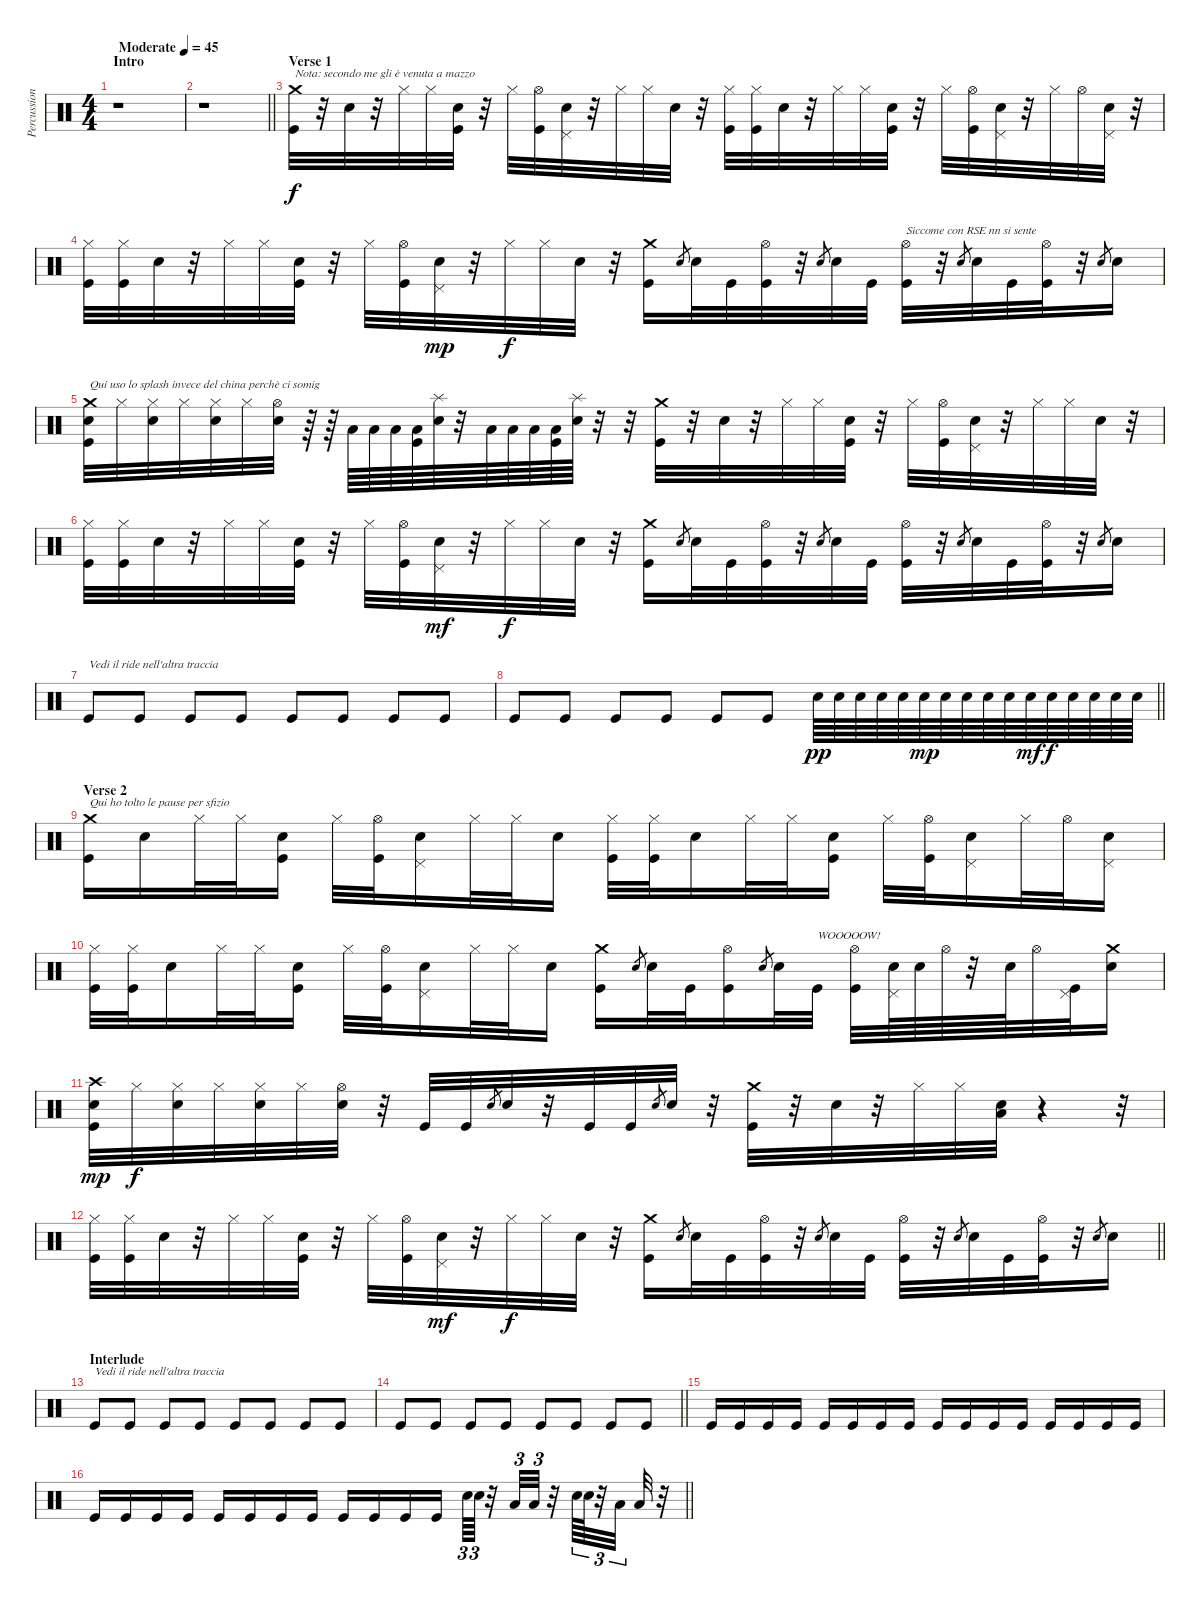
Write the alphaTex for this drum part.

\track ("Percussioni" "Percussion") {instrument percussion}
\staff {score}
\articulation defaults
\ts (4 4)
\section ("" "Intro")
\tempo (45 "Moderate")
\clef neutral
\ks c
r.1{dy f} |
\barLineRight lightlight
r.1 |
\section ("" "Verse 1")
("Crash medium (hit)" "Kick (hit)").32{txt "Nota: secondo me gli è venuta a mazzo"} r.32 "Snare (hit) 2".32 r.32 "Hi-Hat (closed)".32 "Hi-Hat (closed)".32 ("Kick (hit)" "Snare (hit) 2").32 r.32 "Hi-Hat (closed)".32 ("Hi-Hat (open)" "Kick (hit)").32 ("Snare (hit) 2" "Pedal Hi-Hat (hit)").32 r.32 "Hi-Hat (closed)".32 "Hi-Hat (closed)".32 "Snare (hit) 2".32 r.32 ("Hi-Hat (closed)" "Kick (hit)").32 ("Hi-Hat (closed)" "Kick (hit)").32 "Snare (hit) 2".32 r.32 "Hi-Hat (closed)".32 "Hi-Hat (closed)".32 ("Snare (hit) 2" "Kick (hit)").32 r.32 "Hi-Hat (closed)".32 ("Hi-Hat (open)" "Kick (hit)").32 ("Snare (hit) 2" "Pedal Hi-Hat (hit)").32 r.32 "Hi-Hat (closed)".32 "Hi-Hat (open)".32 ("Snare (hit) 2" "Pedal Hi-Hat (hit)").32 r.32 |
("Hi-Hat (closed)" "Kick (hit)").32 ("Hi-Hat (closed)" "Kick (hit)").32 "Snare (hit) 2".32 r.32 "Hi-Hat (closed)".32 "Hi-Hat (closed)".32 ("Snare (hit) 2" "Kick (hit)").32 r.32 "Hi-Hat (closed)".32 ("Hi-Hat (open)" "Kick (hit)").32 ("Snare (hit) 2" "Pedal Hi-Hat (hit)").32{dy mp} r.32 "Hi-Hat (closed)".32{dy f} "Hi-Hat (closed)".32 "Snare (hit) 2".32 r.32 ("Crash medium (hit)" "Kick (hit)").16 "Snare (hit) 2".8{gr} "Snare (hit) 2".32 "Kick (hit)".32 ("Hi-Hat (open)" "Kick (hit)").32 r.32 "Snare (hit) 2".8{gr} "Snare (hit) 2".32 "Kick (hit)".32 ("Hi-Hat (open)" "Kick (hit)").32{txt "Siccome con RSE nn si sente"} r.32 "Snare (hit) 2".8{gr} "Snare (hit) 2".32 "Kick (hit)".32 ("Hi-Hat (open)" "Kick (hit)").32 r.32 "Snare (hit) 2".8{gr} "Snare (hit) 2".16 |
("Snare (hit) 2" "Crash medium (hit)" "Kick (hit)").32{txt "Qui uso lo splash invece del china perchè ci somig"} "Hi-Hat (closed)".32 ("Snare (hit) 2" "Hi-Hat (closed)").32 "Hi-Hat (closed)".32 ("Snare (hit) 2" "Hi-Hat (closed)").32 "Hi-Hat (closed)".32 ("Snare (hit) 2" "Hi-Hat (open)").32 r.64 r.64 "Low Tom (hit)".64 "Low Tom (hit)".64 "Low Tom (hit)".64 ("Low Tom (hit)" "Kick (hit)").64 ("Splash (hit)" "Snare (hit) 2").64 r.32 "Low Floor Tom (hit)".64 "Low Floor Tom (hit)".64 "Low Floor Tom (hit)".64 ("Low Floor Tom (hit)" "Kick (hit)").64 ("Splash (hit)" "Snare (hit) 2").64 r.32 r.32 ("Crash medium (hit)" "Kick (hit)").32 r.32 "Snare (hit) 2".32 r.32 "Hi-Hat (closed)".32 "Hi-Hat (closed)".32 ("Kick (hit)" "Snare (hit) 2").32 r.32 "Hi-Hat (closed)".32 ("Kick (hit)" "Hi-Hat (open)").32 ("Pedal Hi-Hat (hit)" "Snare (hit) 2").32 r.32 "Hi-Hat (closed)".32 "Hi-Hat (closed)".32 "Snare (hit) 2".32 r.32 |
("Hi-Hat (closed)" "Kick (hit)").32 ("Hi-Hat (closed)" "Kick (hit)").32 "Snare (hit) 2".32 r.32 "Hi-Hat (closed)".32 "Hi-Hat (closed)".32 ("Snare (hit) 2" "Kick (hit)").32 r.32 "Hi-Hat (closed)".32 ("Hi-Hat (open)" "Kick (hit)").32 ("Snare (hit) 2" "Pedal Hi-Hat (hit)").32{dy mf} r.32 "Hi-Hat (closed)".32{dy f} "Hi-Hat (closed)".32 "Snare (hit) 2".32 r.32 ("Crash medium (hit)" "Kick (hit)").16 "Snare (hit) 2".8{gr} "Snare (hit) 2".32 "Kick (hit)".32 ("Hi-Hat (open)" "Kick (hit)").32 r.32 "Snare (hit) 2".8{gr} "Snare (hit) 2".32 "Kick (hit)".32 ("Hi-Hat (open)" "Kick (hit)").32 r.32 "Snare (hit) 2".8{gr} "Snare (hit) 2".32 "Kick (hit)".32 ("Hi-Hat (open)" "Kick (hit)").32 r.32 "Snare (hit) 2".8{gr} "Snare (hit) 2".16 |
"Kick (hit)".8{txt "Vedi il ride nell'altra traccia"} "Kick (hit)".8 "Kick (hit)".8 "Kick (hit)".8 "Kick (hit)".8 "Kick (hit)".8 "Kick (hit)".8 "Kick (hit)".8 |
\barLineRight lightlight "Kick (hit)".8 "Kick (hit)".8 "Kick (hit)".8 "Kick (hit)".8 "Kick (hit)".8 "Kick (hit)".8 "Snare (hit) 2".64{dy pp} "Snare (hit) 2".64 "Snare (hit) 2".64 "Snare (hit) 2".64 "Snare (hit) 2".64 "Snare (hit) 2".64{dy mp} "Snare (hit) 2".64 "Snare (hit) 2".64 "Snare (hit) 2".64 "Snare (hit) 2".64 "Snare (hit) 2".64{dy mf} "Snare (hit) 2".64{dy f} "Snare (hit) 2".64 "Snare (hit) 2".64 "Snare (hit) 2".64 "Snare (hit) 2".64
|
\section ("" "Verse 2")
("Crash medium (hit)" "Kick (hit)").16{txt "Qui ho tolto le pause per sfizio"} "Snare (hit) 2".16 "Hi-Hat (closed)".32 "Hi-Hat (closed)".32 ("Kick (hit)" "Snare (hit) 2").16 "Hi-Hat (closed)".32 ("Hi-Hat (open)" "Kick (hit)").32 ("Snare (hit) 2" "Pedal Hi-Hat (hit)").16 "Hi-Hat (closed)".32 "Hi-Hat (closed)".32 "Snare (hit) 2".16 ("Hi-Hat (closed)" "Kick (hit)").32 ("Hi-Hat (closed)" "Kick (hit)").32 "Snare (hit) 2".16 "Hi-Hat (closed)".32 "Hi-Hat (closed)".32 ("Snare (hit) 2" "Kick (hit)").16 "Hi-Hat (closed)".32 ("Hi-Hat (open)" "Kick (hit)").32 ("Snare (hit) 2" "Pedal Hi-Hat (hit)").16 "Hi-Hat (closed)".32 "Hi-Hat (open)".32 ("Snare (hit) 2" "Pedal Hi-Hat (hit)").16 |
("Hi-Hat (closed)" "Kick (hit)").32 ("Hi-Hat (closed)" "Kick (hit)").32 "Snare (hit) 2".16 "Hi-Hat (closed)".32 "Hi-Hat (closed)".32 ("Snare (hit) 2" "Kick (hit)").16 "Hi-Hat (closed)".32 ("Hi-Hat (open)" "Kick (hit)").32 ("Snare (hit) 2" "Pedal Hi-Hat (hit)").16 "Hi-Hat (closed)".32 "Hi-Hat (closed)".32 "Snare (hit) 2".16 ("Crash medium (hit)" "Kick (hit)").16 "Snare (hit) 2".8{gr} "Snare (hit) 2".32 "Kick (hit)".32 ("Hi-Hat (open)" "Kick (hit)").16 "Snare (hit) 2".8{gr} "Snare (hit) 2".32 "Kick (hit)".32{txt "WOOOOOW!"} ("Hi-Hat (open)" "Kick (hit)").32 ("Snare (hit) 2" "Pedal Hi-Hat (hit)").64 "Snare (hit) 2".64 "Hi-Hat (open)".64 r.32 "Snare (hit) 2".64 "Hi-Hat (open)".32 ("Kick (hit)" "Pedal Hi-Hat (hit)").32 ("Crash medium (hit)" "Snare (hit) 2").16 |
("Crash high (hit)" "Kick (hit)" "Snare (hit) 2").32{dy mp} "Hi-Hat (closed)".32{dy f} ("Hi-Hat (closed)" "Snare (hit) 2").32 "Hi-Hat (closed)".32 ("Hi-Hat (closed)" "Snare (hit) 2").32 "Hi-Hat (closed)".32 ("Hi-Hat (open)" "Snare (hit) 2").32 r.32 "Kick (hit)".32 "Kick (hit)".32 "Snare (hit) 2".8{gr} "Snare (hit) 2".32 r.32 "Kick (hit)".32 "Kick (hit)".32 "Snare (hit) 2".8{gr} "Snare (hit) 2".32 r.32 ("Crash medium (hit)" "Kick (hit)").32 r.32 "Snare (hit) 2".32 r.32 "Hi-Hat (closed)".32 "Hi-Hat (closed)".32 ("Snare (hit) 2" "Low Floor Tom (hit)").32 r.4 r.32 |
\barLineRight lightlight
("Hi-Hat (closed)" "Kick (hit)").32 ("Hi-Hat (closed)" "Kick (hit)").32 "Snare (hit) 2".32 r.32 "Hi-Hat (closed)".32 "Hi-Hat (closed)".32 ("Snare (hit) 2" "Kick (hit)").32 r.32 "Hi-Hat (closed)".32 ("Hi-Hat (open)" "Kick (hit)").32 ("Snare (hit) 2" "Pedal Hi-Hat (hit)").32{dy mf} r.32 "Hi-Hat (closed)".32{dy f} "Hi-Hat (closed)".32 "Snare (hit) 2".32 r.32 ("Crash medium (hit)" "Kick (hit)").16 "Snare (hit) 2".8{gr} "Snare (hit) 2".32 "Kick (hit)".32 ("Hi-Hat (open)" "Kick (hit)").32 r.32 "Snare (hit) 2".8{gr} "Snare (hit) 2".32 "Kick (hit)".32 ("Hi-Hat (open)" "Kick (hit)").32 r.32 "Snare (hit) 2".8{gr} "Snare (hit) 2".32 "Kick (hit)".32 ("Hi-Hat (open)" "Kick (hit)").32 r.32 "Snare (hit) 2".8{gr} "Snare (hit) 2".16 |
\section ("" "Interlude")
"Kick (hit)".8{txt "Vedi il ride nell'altra traccia"} "Kick (hit)".8 "Kick (hit)".8 "Kick (hit)".8 "Kick (hit)".8 "Kick (hit)".8 "Kick (hit)".8 "Kick (hit)".8 |
\barLineRight lightlight "Kick (hit)".8 "Kick (hit)".8 "Kick (hit)".8 "Kick (hit)".8 "Kick (hit)".8 "Kick (hit)".8 "Kick (hit)".8 "Kick (hit)".8
|
"Kick (hit)".16 "Kick (hit)".16 "Kick (hit)".16 "Kick (hit)".16 "Kick (hit)".16 "Kick (hit)".16 "Kick (hit)".16 "Kick (hit)".16 "Kick (hit)".16 "Kick (hit)".16 "Kick (hit)".16 "Kick (hit)".16 "Kick (hit)".16 "Kick (hit)".16 "Kick (hit)".16 "Kick (hit)".16 |
\barLineRight lightlight "Kick (hit)".16 "Kick (hit)".16 "Kick (hit)".16 "Kick (hit)".16 "Kick (hit)".16 "Kick (hit)".16 "Kick (hit)".16 "Kick (hit)".16 "Kick (hit)".16 "Kick (hit)".16 "Kick (hit)".16 "Kick (hit)".16 "Snare (hit) 2".64{tu (3 2)} "Snare (hit) 2".64{tu (3 2)}
r.32 "Low Tom (hit)".32{tu (3 2)} "Low Floor Tom (hit)".32{tu (3 2)} r.32 "Snare (hit) 2".64{tu (3 2)} "Snare (hit) 2".64{tu (3 2)} r.32{tu (3 2)} "Low Tom (hit)".32{tu (3 2)} "Low Floor Tom (hit)".32 r.32
